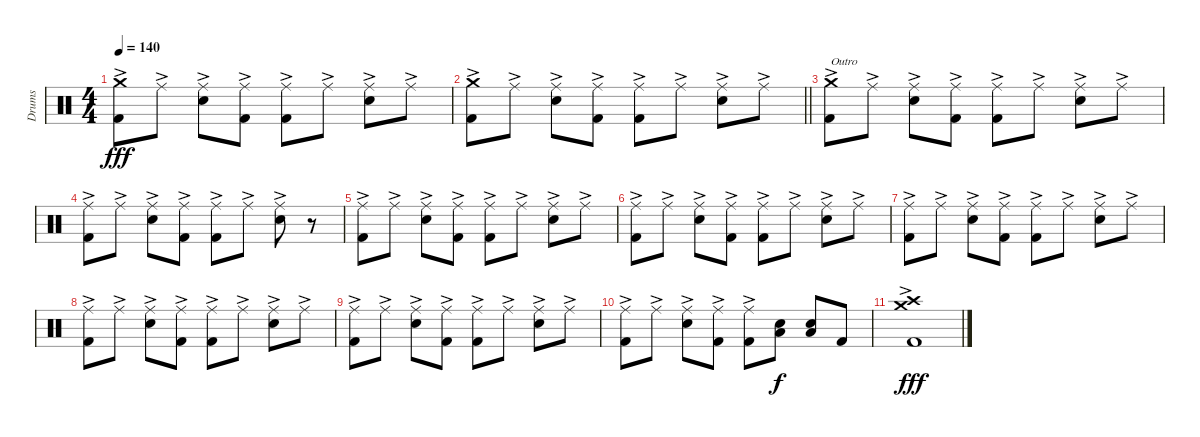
\track ("Drums" "Drums") {instrument percussion}
\staff {score}
\articulation defaults
\ts (4 4)
\tempo 140
\clef neutral
\ks c
("Crash medium (hit)"{ac} "Kick (hit) 2").8{dy fff} "Ride (middle)"{ac}.8 ("Ride (middle)"{ac} "Electric Snare (hit)").8 ("Ride (middle)"{ac} "Kick (hit) 2").8 ("Ride (middle)"{ac} "Kick (hit) 2").8 "Ride (middle)"{ac}.8 ("Ride (middle)"{ac} "Electric Snare (hit)").8 "Ride (middle)"{ac}.8 |
\barLineRight lightlight
("Crash medium (hit)"{ac} "Kick (hit) 2").8 "Ride (middle)"{ac}.8 ("Ride (middle)"{ac} "Electric Snare (hit)").8 ("Ride (middle)"{ac} "Kick (hit) 2").8 ("Ride (middle)"{ac} "Kick (hit) 2").8 "Ride (middle)"{ac}.8 ("Ride (middle)"{ac} "Electric Snare (hit)").8 "Ride (middle)"{ac}.8 |
("Crash medium (hit)"{ac} "Kick (hit) 2").8{txt "Outro"} "Ride (middle)"{ac}.8 ("Ride (middle)"{ac} "Electric Snare (hit)").8 ("Ride (middle)"{ac} "Kick (hit) 2").8 ("Ride (middle)"{ac} "Kick (hit) 2").8 "Ride (middle)"{ac}.8 ("Ride (middle)"{ac} "Electric Snare (hit)").8 "Ride (middle)"{ac}.8 |
("Ride (middle)"{ac} "Kick (hit) 2").8 "Ride (middle)"{ac}.8 ("Ride (middle)"{ac} "Electric Snare (hit)").8 ("Ride (middle)"{ac} "Kick (hit) 2").8 ("Ride (middle)"{ac} "Kick (hit) 2").8 "Ride (middle)"{ac}.8 ("Ride (middle)"{ac} "Electric Snare (hit)").8 r.8 |
("Ride (middle)"{ac} "Kick (hit) 2").8 "Ride (middle)"{ac}.8 ("Ride (middle)"{ac} "Electric Snare (hit)").8 ("Ride (middle)"{ac} "Kick (hit) 2").8 ("Ride (middle)"{ac} "Kick (hit) 2").8 "Ride (middle)"{ac}.8 ("Ride (middle)"{ac} "Electric Snare (hit)").8 "Ride (middle)"{ac}.8 |
("Ride (middle)"{ac} "Kick (hit) 2").8 "Ride (middle)"{ac}.8 ("Ride (middle)"{ac} "Electric Snare (hit)").8 ("Ride (middle)"{ac} "Kick (hit) 2").8 ("Ride (middle)"{ac} "Kick (hit) 2").8 "Ride (middle)"{ac}.8 ("Ride (middle)"{ac} "Electric Snare (hit)").8 "Ride (middle)"{ac}.8 |
("Ride (middle)"{ac} "Kick (hit) 2").8 "Ride (middle)"{ac}.8 ("Ride (middle)"{ac} "Electric Snare (hit)").8 ("Ride (middle)"{ac} "Kick (hit) 2").8 ("Ride (middle)"{ac} "Kick (hit) 2").8 "Ride (middle)"{ac}.8 ("Ride (middle)"{ac} "Electric Snare (hit)").8 "Ride (middle)"{ac}.8 |
("Ride (middle)"{ac} "Kick (hit) 2").8 "Ride (middle)"{ac}.8 ("Ride (middle)"{ac} "Electric Snare (hit)").8 ("Ride (middle)"{ac} "Kick (hit) 2").8 ("Ride (middle)"{ac} "Kick (hit) 2").8 "Ride (middle)"{ac}.8 ("Ride (middle)"{ac} "Electric Snare (hit)").8 "Ride (middle)"{ac}.8 |
("Ride (middle)"{ac} "Kick (hit) 2").8 "Ride (middle)"{ac}.8 ("Ride (middle)"{ac} "Electric Snare (hit)").8 ("Ride (middle)"{ac} "Kick (hit) 2").8 ("Ride (middle)"{ac} "Kick (hit) 2").8 "Ride (middle)"{ac}.8 ("Ride (middle)"{ac} "Electric Snare (hit)").8 "Ride (middle)"{ac}.8 |
("Ride (middle)"{ac} "Kick (hit) 2").8 "Ride (middle)"{ac}.8 ("Ride (middle)"{ac} "Electric Snare (hit)").8 ("Ride (middle)"{ac} "Kick (hit) 2").8 ("Ride (middle)"{ac} "Kick (hit) 2").8 ("Electric Snare (hit)" "Low Floor Tom (hit)").8{dy f} ("Electric Snare (hit)" "Low Floor Tom (hit)").8 "Kick (hit) 2".8 |
("Crash medium (hit)"{ac} "Crash high (hit)"{ac} "Kick (hit) 2").1{dy fff}
